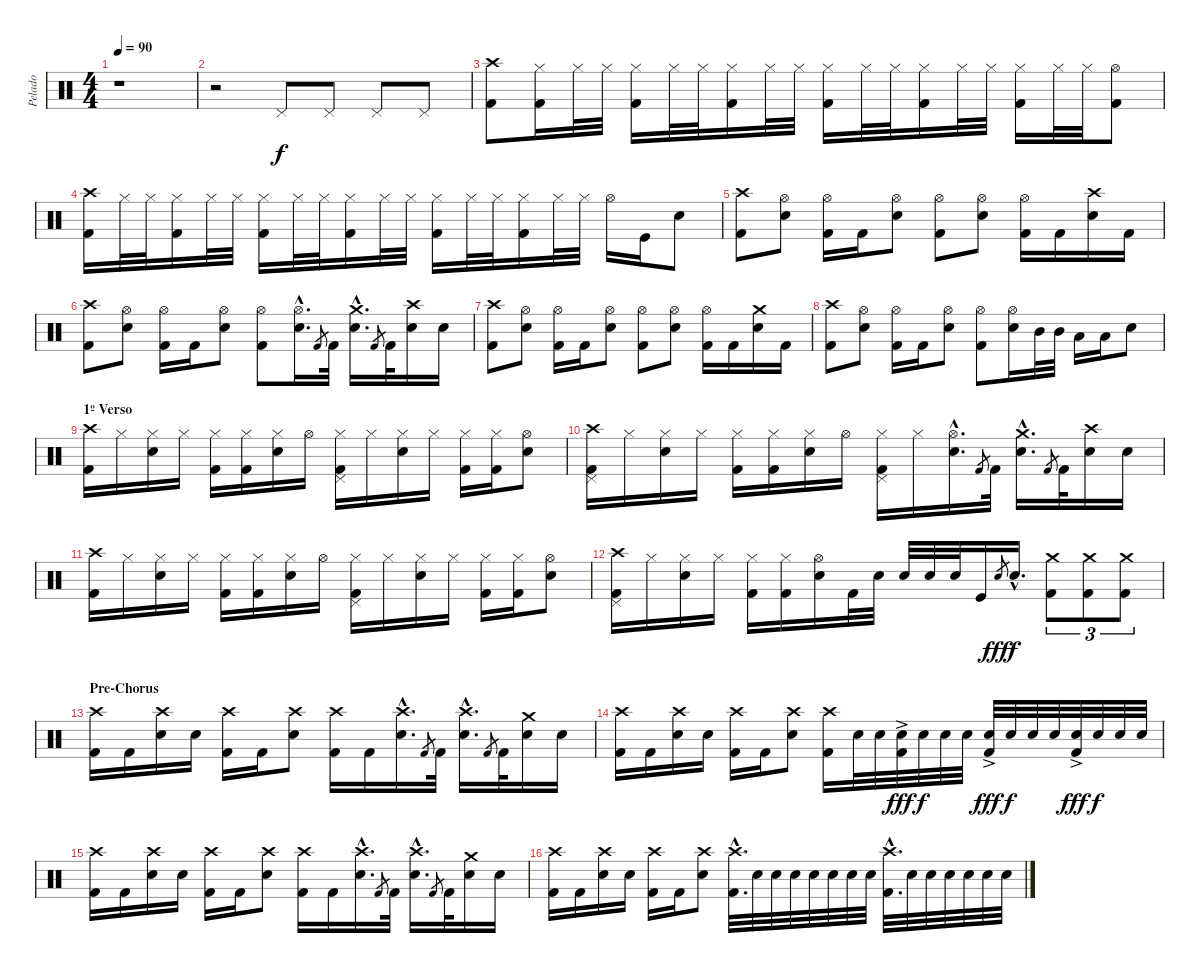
\track ("Pelado" "Pelado") {instrument percussion}
\staff {score}
\articulation defaults
\ts (4 4)
\tempo 90
\clef neutral
\ks c
r.1{dy f} |
r.2 "Pedal Hi-Hat (hit)".8 "Pedal Hi-Hat (hit)".8 "Pedal Hi-Hat (hit)".8 "Pedal Hi-Hat (hit)".8 |
("Crash high (hit)" "Kick (hit) 2").8 ("Hi-Hat (closed)" "Kick (hit) 2").16 "Hi-Hat (closed)".32 "Hi-Hat (closed)".32 ("Hi-Hat (closed)" "Kick (hit) 2").16 "Hi-Hat (closed)".32 "Hi-Hat (closed)".32 ("Hi-Hat (closed)" "Kick (hit) 2").16 "Hi-Hat (closed)".32 "Hi-Hat (closed)".32 ("Hi-Hat (closed)" "Kick (hit) 2").16 "Hi-Hat (closed)".32 "Hi-Hat (closed)".32 ("Hi-Hat (closed)" "Kick (hit) 2").16 "Hi-Hat (closed)".32 "Hi-Hat (closed)".32 ("Hi-Hat (closed)" "Kick (hit) 2").16 "Hi-Hat (closed)".32 "Hi-Hat (closed)".32 ("Hi-Hat (open)" "Kick (hit) 2").8 |
("Crash high (hit)" "Kick (hit) 2").16 "Hi-Hat (closed)".32 "Hi-Hat (closed)".32 ("Hi-Hat (closed)" "Kick (hit) 2").16 "Hi-Hat (closed)".32 "Hi-Hat (closed)".32 ("Hi-Hat (closed)" "Kick (hit) 2").16 "Hi-Hat (closed)".32 "Hi-Hat (closed)".32 ("Hi-Hat (closed)" "Kick (hit) 2").16 "Hi-Hat (closed)".32 "Hi-Hat (closed)".32 ("Hi-Hat (closed)" "Kick (hit) 2").16 "Hi-Hat (closed)".32 "Hi-Hat (closed)".32 ("Hi-Hat (closed)" "Kick (hit) 2").16 "Hi-Hat (closed)".32 "Hi-Hat (closed)".32 "Hi-Hat (open)".16 "Kick (hit)".16 "Electric Snare (hit)".8 |
("Crash high (hit)" "Kick (hit) 2").8 ("Hi-Hat (open)" "Electric Snare (hit)").8 ("Hi-Hat (open)" "Kick (hit) 2").16 "Kick (hit) 2".16 ("Hi-Hat (open)" "Electric Snare (hit)").8 ("Hi-Hat (open)" "Kick (hit) 2").8 ("Hi-Hat (open)" "Electric Snare (hit)").8 ("Hi-Hat (open)" "Kick (hit) 2").16 "Kick (hit) 2".16 ("Crash high (hit)" "Electric Snare (hit)").16 "Kick (hit) 2".16 |
("Crash high (hit)" "Kick (hit) 2").8 ("Hi-Hat (open)" "Electric Snare (hit)").8 ("Hi-Hat (open)" "Kick (hit) 2").16 "Kick (hit) 2".16 ("Hi-Hat (open)" "Electric Snare (hit)").8 ("Hi-Hat (open)" "Kick (hit) 2").8 ("Hi-Hat (open)"{hac} "Electric Snare (hit)"{hac}).16{d} "Kick (hit) 2".8{gr} "Kick (hit) 2".32 ("Crash medium (hit)"{hac} "Electric Snare (hit)"{hac}).16{d} "Kick (hit) 2".8{gr} "Kick (hit) 2".32 ("Crash high (hit)" "Electric Snare (hit)").16 "Electric Snare (hit)".16 |
("Crash high (hit)" "Kick (hit) 2").8 ("Hi-Hat (open)" "Electric Snare (hit)").8 ("Hi-Hat (open)" "Kick (hit) 2").16 "Kick (hit) 2".16 ("Hi-Hat (open)" "Electric Snare (hit)").8 ("Hi-Hat (open)" "Kick (hit) 2").8 ("Hi-Hat (open)" "Electric Snare (hit)").8 ("Hi-Hat (open)" "Kick (hit) 2").16 "Kick (hit) 2".16 ("Crash medium (hit)" "Electric Snare (hit)").16 "Kick (hit) 2".16 |
("Crash high (hit)" "Kick (hit) 2").8 ("Hi-Hat (open)" "Electric Snare (hit)").8 ("Hi-Hat (open)" "Kick (hit) 2").16 "Kick (hit) 2".16 ("Hi-Hat (open)" "Electric Snare (hit)").8 ("Hi-Hat (open)" "Kick (hit) 2").8 ("Hi-Hat (open)" "Electric Snare (hit)").16 "Mid Tom (hit)".32 "Mid Tom (hit)".32 "Low Tom (hit)".16 "Low Tom (hit)".16 "Electric Snare (hit)".8 |
\section ("" "1º Verso")
("Crash high (hit)" "Kick (hit) 2").16 "Hi-Hat (closed)".16 ("Hi-Hat (closed)" "Electric Snare (hit)").16 "Hi-Hat (closed)".16 ("Hi-Hat (closed)" "Kick (hit) 2").16 ("Hi-Hat (closed)" "Kick (hit) 2").16 ("Hi-Hat (closed)" "Electric Snare (hit)").16 "Hi-Hat (open)".16 ("Hi-Hat (closed)" "Pedal Hi-Hat (hit)" "Kick (hit) 2").16 "Hi-Hat (closed)".16 ("Hi-Hat (closed)" "Electric Snare (hit)").16 "Hi-Hat (closed)".16 ("Hi-Hat (closed)" "Kick (hit) 2").16 ("Hi-Hat (closed)" "Kick (hit) 2").16 ("Hi-Hat (open)" "Electric Snare (hit)").8 |
("Crash high (hit)" "Pedal Hi-Hat (hit)" "Kick (hit) 2").16 "Hi-Hat (closed)".16 ("Hi-Hat (closed)" "Electric Snare (hit)").16 "Hi-Hat (closed)".16 ("Hi-Hat (closed)" "Kick (hit) 2").16 ("Hi-Hat (closed)" "Kick (hit) 2").16 ("Hi-Hat (closed)" "Electric Snare (hit)").16 "Hi-Hat (open)".16 ("Hi-Hat (closed)" "Pedal Hi-Hat (hit)" "Kick (hit) 2").16 "Hi-Hat (closed)".16 ("Hi-Hat (open)"{hac} "Electric Snare (hit)"{hac}).16{d} "Kick (hit) 2".8{gr} "Kick (hit) 2".32 ("Crash medium (hit)"{hac} "Electric Snare (hit)"{hac}).16{d} "Kick (hit) 2".8{gr} "Kick (hit) 2".32 ("Crash high (hit)" "Electric Snare (hit)").16 "Electric Snare (hit)".16 |
("Crash high (hit)" "Kick (hit) 2").16 "Hi-Hat (closed)".16 ("Hi-Hat (closed)" "Electric Snare (hit)").16 "Hi-Hat (closed)".16 ("Hi-Hat (closed)" "Kick (hit) 2").16 ("Hi-Hat (closed)" "Kick (hit) 2").16 ("Hi-Hat (closed)" "Electric Snare (hit)").16 "Hi-Hat (open)".16 ("Hi-Hat (closed)" "Pedal Hi-Hat (hit)" "Kick (hit) 2").16 "Hi-Hat (closed)".16 ("Hi-Hat (closed)" "Electric Snare (hit)").16 "Hi-Hat (closed)".16 ("Hi-Hat (closed)" "Kick (hit) 2").16 ("Hi-Hat (closed)" "Kick (hit) 2").16 ("Hi-Hat (open)" "Electric Snare (hit)").8 |
("Crash high (hit)" "Pedal Hi-Hat (hit)" "Kick (hit) 2").16 "Hi-Hat (closed)".16 ("Hi-Hat (closed)" "Electric Snare (hit)").16 "Hi-Hat (closed)".16 ("Hi-Hat (closed)" "Kick (hit) 2").16 ("Hi-Hat (closed)" "Kick (hit) 2").16 ("Hi-Hat (open)" "Electric Snare (hit)").16 "Kick (hit) 2".32 "Electric Snare (hit)".32 "Electric Snare (hit)".32 "Electric Snare (hit)".32 "Electric Snare (hit)".32 "Kick (hit)".16 "Electric Snare (hit)".8{gr dy fff} "Electric Snare (hit)"{hac}.16{d dy f} ("Crash medium (hit)" "Kick (hit) 2").8{tu (3 2)} ("Crash medium (hit)" "Kick (hit) 2").8{tu (3 2)} ("Crash medium (hit)" "Kick (hit) 2").8{tu (3 2)} |
\section ("" "Pre-Chorus")
("Crash high (hit)" "Kick (hit) 2").16 "Kick (hit) 2".16 ("Crash high (hit)" "Electric Snare (hit)").16 "Electric Snare (hit)".16 ("Crash high (hit)" "Kick (hit) 2").16 "Kick (hit) 2".16 ("Crash high (hit)" "Electric Snare (hit)").8 ("Crash high (hit)" "Kick (hit) 2").16 "Kick (hit) 2".16 ("Crash high (hit)"{hac} "Electric Snare (hit)"{hac}).16{d} "Kick (hit) 2".8{gr} "Kick (hit) 2".32 ("Crash high (hit)"{hac} "Electric Snare (hit)"{hac}).16{d} "Kick (hit) 2".8{gr} "Kick (hit) 2".32 ("Crash medium (hit)" "Electric Snare (hit)").16 "Electric Snare (hit)".16 |
("Crash high (hit)" "Kick (hit) 2").16 "Kick (hit) 2".16 ("Crash high (hit)" "Electric Snare (hit)").16 "Electric Snare (hit)".16 ("Crash high (hit)" "Kick (hit) 2").16 "Kick (hit) 2".16 ("Crash high (hit)" "Electric Snare (hit)").8 ("Crash high (hit)" "Kick (hit) 2").16 "Electric Snare (hit)".32 "Electric Snare (hit)".32 ("Electric Snare (hit)"{ac} "Kick (hit) 2").32{dy fff} "Electric Snare (hit)".32{dy f} "Electric Snare (hit)".32 "Electric Snare (hit)".32 ("Electric Snare (hit)"{ac} "Kick (hit) 2").32{dy fff} "Electric Snare (hit)".32{dy f} "Electric Snare (hit)".32 "Electric Snare (hit)".32 ("Electric Snare (hit)"{ac} "Kick (hit) 2").32{dy fff} "Electric Snare (hit)".32{dy f} "Electric Snare (hit)".32 "Electric Snare (hit)".32 |
("Crash high (hit)" "Kick (hit) 2").16 "Kick (hit) 2".16 ("Crash high (hit)" "Electric Snare (hit)").16 "Electric Snare (hit)".16 ("Crash high (hit)" "Kick (hit) 2").16 "Kick (hit) 2".16 ("Crash high (hit)" "Electric Snare (hit)").8 ("Crash high (hit)" "Kick (hit) 2").16 "Kick (hit) 2".16 ("Crash high (hit)"{hac} "Electric Snare (hit)"{hac}).16{d} "Kick (hit) 2".8{gr} "Kick (hit) 2".32 ("Crash high (hit)"{hac} "Electric Snare (hit)"{hac}).16{d} "Kick (hit) 2".8{gr} "Kick (hit) 2".32 ("Crash medium (hit)" "Electric Snare (hit)").16 "Electric Snare (hit)".16 |
("Crash high (hit)" "Kick (hit) 2").16 "Kick (hit) 2".16 ("Crash high (hit)" "Electric Snare (hit)").16 "Electric Snare (hit)".16 ("Crash high (hit)" "Kick (hit) 2").16 "Kick (hit) 2".16 ("Crash high (hit)" "Electric Snare (hit)").8 ("Crash high (hit)"{hac} "Kick (hit) 2"{hac}).32{d} "Electric Snare (hit)".32 "Electric Snare (hit)".32 "Electric Snare (hit)".32 "Electric Snare (hit)".32 "Electric Snare (hit)".32 "Electric Snare (hit)".32 "Electric Snare (hit)".32 ("Crash high (hit)"{hac} "Kick (hit) 2"{hac}).32{d} "Electric Snare (hit)".32 "Electric Snare (hit)".32 "Electric Snare (hit)".32 "Electric Snare (hit)".32 "Electric Snare (hit)".32 "Electric Snare (hit)".32
